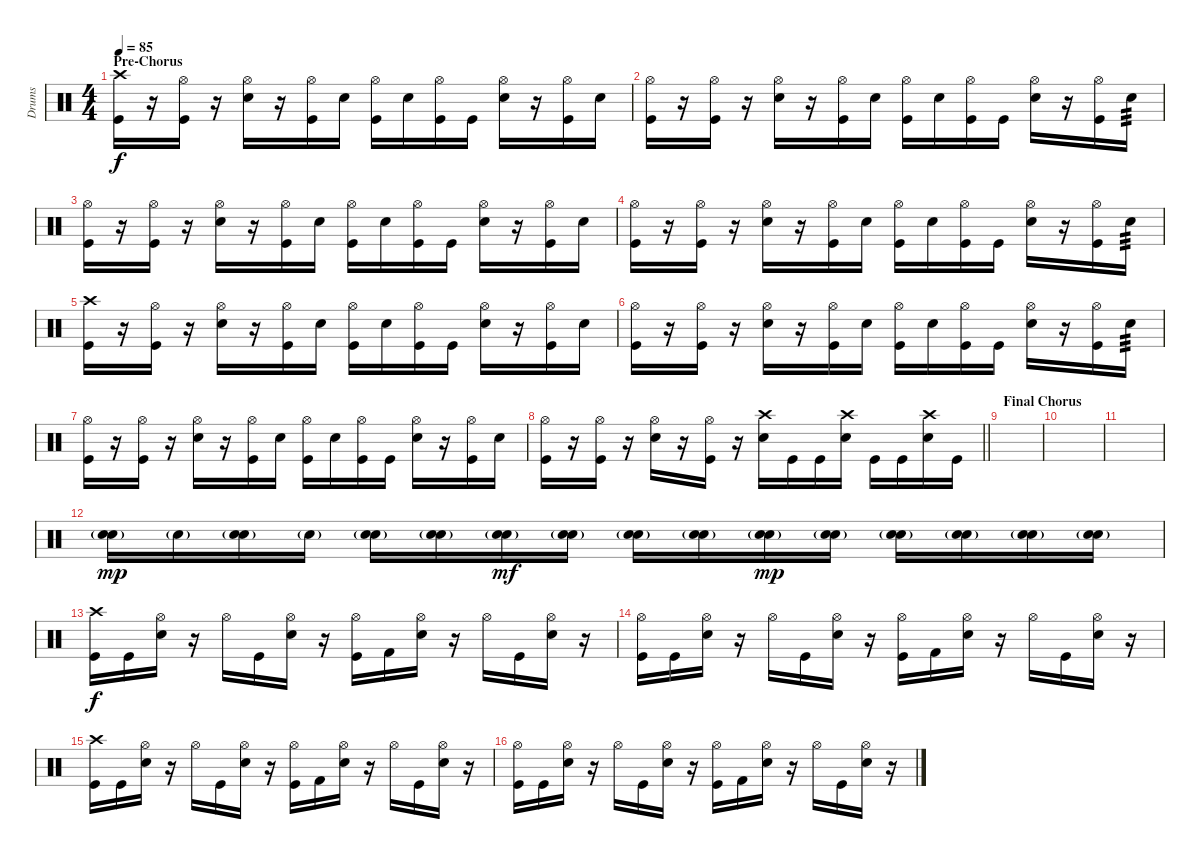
\track ("Drums" "Drums") {instrument percussion}
\staff {score}
\articulation defaults
\ts (4 4)
\section ("" "Pre-Chorus")
\tempo 85
\clef neutral
\ks c
("Crash high (hit)" "Kick (hit)").16{dy f} r.16 ("Hi-Hat (open)" "Kick (hit)").16 r.16 ("Hi-Hat (open)" "Snare (hit) 2").16 r.16 ("Hi-Hat (open)" "Kick (hit)").16 "Snare (hit) 2".16 ("Hi-Hat (open)" "Kick (hit)").16 "Snare (hit) 2".16 ("Hi-Hat (open)" "Kick (hit)").16 "Kick (hit)".16 ("Hi-Hat (open)" "Snare (hit) 2").16 r.16 ("Hi-Hat (open)" "Kick (hit)").16 "Snare (hit) 2".16 |
("Hi-Hat (open)" "Kick (hit)").16 r.16 ("Hi-Hat (open)" "Kick (hit)").16 r.16 ("Hi-Hat (open)" "Snare (hit) 2").16 r.16 ("Hi-Hat (open)" "Kick (hit)").16 "Snare (hit) 2".16 ("Hi-Hat (open)" "Kick (hit)").16 "Snare (hit) 2".16 ("Hi-Hat (open)" "Kick (hit)").16 "Kick (hit)".16 ("Hi-Hat (open)" "Snare (hit) 2").16 r.16 ("Hi-Hat (open)" "Kick (hit)").16 "Snare (hit) 2".16{tp 3} |
("Hi-Hat (open)" "Kick (hit)").16 r.16 ("Hi-Hat (open)" "Kick (hit)").16 r.16 ("Hi-Hat (open)" "Snare (hit) 2").16 r.16 ("Hi-Hat (open)" "Kick (hit)").16 "Snare (hit) 2".16 ("Hi-Hat (open)" "Kick (hit)").16 "Snare (hit) 2".16 ("Hi-Hat (open)" "Kick (hit)").16 "Kick (hit)".16 ("Hi-Hat (open)" "Snare (hit) 2").16 r.16 ("Hi-Hat (open)" "Kick (hit)").16 "Snare (hit) 2".16 |
("Hi-Hat (open)" "Kick (hit)").16 r.16 ("Hi-Hat (open)" "Kick (hit)").16 r.16 ("Hi-Hat (open)" "Snare (hit) 2").16 r.16 ("Hi-Hat (open)" "Kick (hit)").16 "Snare (hit) 2".16 ("Hi-Hat (open)" "Kick (hit)").16 "Snare (hit) 2".16 ("Hi-Hat (open)" "Kick (hit)").16 "Kick (hit)".16 ("Hi-Hat (open)" "Snare (hit) 2").16 r.16 ("Hi-Hat (open)" "Kick (hit)").16 "Snare (hit) 2".16{tp 3} |
("Crash high (hit)" "Kick (hit)").16 r.16 ("Hi-Hat (open)" "Kick (hit)").16 r.16 ("Hi-Hat (open)" "Snare (hit) 2").16 r.16 ("Hi-Hat (open)" "Kick (hit)").16 "Snare (hit) 2".16 ("Hi-Hat (open)" "Kick (hit)").16 "Snare (hit) 2".16 ("Hi-Hat (open)" "Kick (hit)").16 "Kick (hit)".16 ("Hi-Hat (open)" "Snare (hit) 2").16 r.16 ("Hi-Hat (open)" "Kick (hit)").16 "Snare (hit) 2".16 |
("Hi-Hat (open)" "Kick (hit)").16 r.16 ("Hi-Hat (open)" "Kick (hit)").16 r.16 ("Hi-Hat (open)" "Snare (hit) 2").16 r.16 ("Hi-Hat (open)" "Kick (hit)").16 "Snare (hit) 2".16 ("Hi-Hat (open)" "Kick (hit)").16 "Snare (hit) 2".16 ("Hi-Hat (open)" "Kick (hit)").16 "Kick (hit)".16 ("Hi-Hat (open)" "Snare (hit) 2").16 r.16 ("Hi-Hat (open)" "Kick (hit)").16 "Snare (hit) 2".16{tp 3} |
("Hi-Hat (open)" "Kick (hit)").16 r.16 ("Hi-Hat (open)" "Kick (hit)").16 r.16 ("Hi-Hat (open)" "Snare (hit) 2").16 r.16 ("Hi-Hat (open)" "Kick (hit)").16 "Snare (hit) 2".16 ("Hi-Hat (open)" "Kick (hit)").16 "Snare (hit) 2".16 ("Hi-Hat (open)" "Kick (hit)").16 "Kick (hit)".16 ("Hi-Hat (open)" "Snare (hit) 2").16 r.16 ("Hi-Hat (open)" "Kick (hit)").16 "Snare (hit) 2".16 |
\barLineRight lightlight
("Hi-Hat (open)" "Kick (hit)").16 r.16 ("Hi-Hat (open)" "Kick (hit)").16 r.16 ("Hi-Hat (open)" "Snare (hit) 2").16 r.16 ("Hi-Hat (open)" "Kick (hit)").16 r.16 ("Crash high (hit)" "Snare (hit) 2").16 "Kick (hit)".16 "Kick (hit)".16 ("Crash high (hit)" "Snare (hit) 2").16 "Kick (hit)".16 "Kick (hit)".16 ("Crash high (hit)" "Snare (hit) 2").16 "Kick (hit)".16 |
\section ("" "Final Chorus")
|
|
|
("Snare (hit) 2"{g} "Snare (hit) 2").16{dy mp} "Snare (hit) 2"{g}.16 ("Snare (hit) 2"{g} "Snare (hit) 2").16 "Snare (hit) 2"{g}.16 ("Snare (hit) 2"{g} "Snare (hit) 2").16 ("Snare (hit) 2"{g} "Snare (hit) 2").16 ("Snare (hit) 2"{g} "Snare (hit) 2").16{dy mf} ("Snare (hit) 2"{g} "Snare (hit) 2").16 ("Snare (hit) 2"{g} "Snare (hit) 2").16 ("Snare (hit) 2"{g} "Snare (hit) 2").16 ("Snare (hit) 2"{g} "Snare (hit) 2").16{dy mp} ("Snare (hit) 2"{g} "Snare (hit) 2").16 ("Snare (hit) 2"{g} "Snare (hit) 2").16 ("Snare (hit) 2"{g} "Snare (hit) 2").16 ("Snare (hit) 2"{g} "Snare (hit) 2").16 ("Snare (hit) 2"{g} "Snare (hit) 2").16 |
("Crash high (hit)" "Kick (hit)").16{dy f} "Kick (hit)".16 ("Hi-Hat (open)" "Snare (hit) 2").16 r.16 "Hi-Hat (open)".16 "Kick (hit)".16 ("Hi-Hat (open)" "Snare (hit) 2").16 r.16 ("Hi-Hat (open)" "Kick (hit)").16 "Kick (hit) 2".16 ("Hi-Hat (open)" "Snare (hit) 2").16 r.16 "Hi-Hat (open)".16 "Kick (hit)".16 ("Hi-Hat (open)" "Snare (hit) 2").16 r.16 |
("Hi-Hat (open)" "Kick (hit)").16 "Kick (hit)".16 ("Hi-Hat (open)" "Snare (hit) 2").16 r.16 "Hi-Hat (open)".16 "Kick (hit)".16 ("Hi-Hat (open)" "Snare (hit) 2").16 r.16 ("Hi-Hat (open)" "Kick (hit)").16 "Kick (hit) 2".16 ("Hi-Hat (open)" "Snare (hit) 2").16 r.16 "Hi-Hat (open)".16 "Kick (hit)".16 ("Hi-Hat (open)" "Snare (hit) 2").16 r.16 |
("Crash high (hit)" "Kick (hit)").16 "Kick (hit)".16 ("Hi-Hat (open)" "Snare (hit) 2").16 r.16 "Hi-Hat (open)".16 "Kick (hit)".16 ("Hi-Hat (open)" "Snare (hit) 2").16 r.16 ("Hi-Hat (open)" "Kick (hit)").16 "Kick (hit) 2".16 ("Hi-Hat (open)" "Snare (hit) 2").16 r.16 "Hi-Hat (open)".16 "Kick (hit)".16 ("Hi-Hat (open)" "Snare (hit) 2").16 r.16 |
("Hi-Hat (open)" "Kick (hit)").16 "Kick (hit)".16 ("Hi-Hat (open)" "Snare (hit) 2").16 r.16 "Hi-Hat (open)".16 "Kick (hit)".16 ("Hi-Hat (open)" "Snare (hit) 2").16 r.16 ("Hi-Hat (open)" "Kick (hit)").16 "Kick (hit) 2".16 ("Hi-Hat (open)" "Snare (hit) 2").16 r.16 "Hi-Hat (open)".16 "Kick (hit)".16 ("Hi-Hat (open)" "Snare (hit) 2").16 r.16
